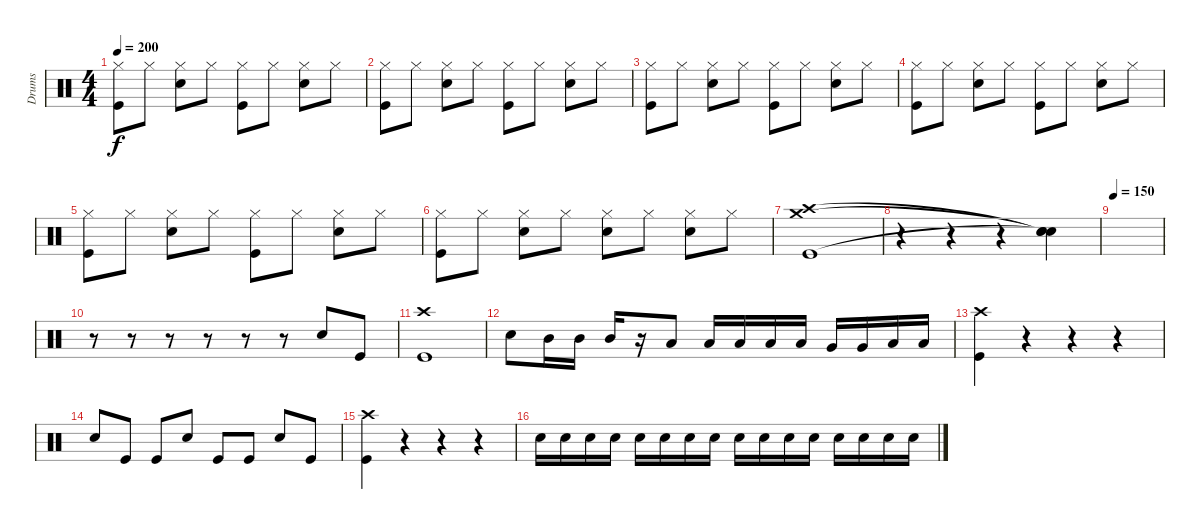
\track ("Drums" "Drums") {instrument percussion}
\staff {score}
\articulation defaults
\ts (4 4)
\tempo 200
\clef neutral
\ks c
("Hi-Hat (closed)" "Kick (hit)").8{dy f} "Hi-Hat (closed)".8 ("Hi-Hat (closed)" "Electric Snare (hit)").8 "Hi-Hat (closed)".8 ("Hi-Hat (closed)" "Kick (hit)").8 "Hi-Hat (closed)".8 ("Hi-Hat (closed)" "Electric Snare (hit)").8 "Hi-Hat (closed)".8 |
("Hi-Hat (closed)" "Kick (hit)").8 "Hi-Hat (closed)".8 ("Hi-Hat (closed)" "Electric Snare (hit)").8 "Hi-Hat (closed)".8 ("Hi-Hat (closed)" "Kick (hit)").8 "Hi-Hat (closed)".8 ("Hi-Hat (closed)" "Electric Snare (hit)").8 "Hi-Hat (closed)".8 |
("Hi-Hat (closed)" "Kick (hit)").8 "Hi-Hat (closed)".8 ("Hi-Hat (closed)" "Electric Snare (hit)").8 "Hi-Hat (closed)".8 ("Hi-Hat (closed)" "Kick (hit)").8 "Hi-Hat (closed)".8 ("Hi-Hat (closed)" "Electric Snare (hit)").8 "Hi-Hat (closed)".8 |
("Hi-Hat (closed)" "Kick (hit)").8 "Hi-Hat (closed)".8 ("Hi-Hat (closed)" "Electric Snare (hit)").8 "Hi-Hat (closed)".8 ("Hi-Hat (closed)" "Kick (hit)").8 "Hi-Hat (closed)".8 ("Hi-Hat (closed)" "Electric Snare (hit)").8 "Hi-Hat (closed)".8 |
("Hi-Hat (closed)" "Kick (hit)").8 "Hi-Hat (closed)".8 ("Hi-Hat (closed)" "Electric Snare (hit)").8 "Hi-Hat (closed)".8 ("Hi-Hat (closed)" "Kick (hit)").8 "Hi-Hat (closed)".8 ("Hi-Hat (closed)" "Electric Snare (hit)").8 "Hi-Hat (closed)".8 |
("Hi-Hat (closed)" "Kick (hit)").8 "Hi-Hat (closed)".8 ("Hi-Hat (closed)" "Electric Snare (hit)").8 "Hi-Hat (closed)".8 ("Hi-Hat (closed)" "Electric Snare (hit)").8 "Hi-Hat (closed)".8 ("Hi-Hat (closed)" "Electric Snare (hit)").8 "Hi-Hat (closed)".8 |
("Crash medium (hit)" "Crash high (hit)" "Kick (hit)").1 |
r.4 r.4 r.4 ("Snare (hit)"{t} "Snare (hit)"{t} "Snare (hit)"{t}).4 |
\tempo 150
|
r.8 r.8 r.8 r.8 r.8 r.8 "Electric Snare (hit)".8 "Kick (hit)".8 |
("Crash high (hit)" "Kick (hit)").1 |
"Electric Snare (hit)".8 "Mid Tom (hit)".16 "Mid Tom (hit)".16 "Mid Tom (hit)".16 r.16 "Low Tom (hit)".8 "Low Tom (hit)".16 "Low Tom (hit)".16 "Low Tom (hit)".16 "Low Tom (hit)".16 "Very Low Tom (hit)".16 "Very Low Tom (hit)".16 "Low Floor Tom (hit)".16 "Low Floor Tom (hit)".16 |
("Crash high (hit)" "Kick (hit)").4 r.4 r.4 r.4 |
"Electric Snare (hit)".8 "Kick (hit)".8 "Kick (hit)".8 "Electric Snare (hit)".8 "Kick (hit)".8 "Kick (hit)".8 "Electric Snare (hit)".8 "Kick (hit)".8 |
("Crash high (hit)" "Kick (hit)").4 r.4 r.4 r.4 |
"Electric Snare (hit)".16 "Electric Snare (hit)".16 "Electric Snare (hit)".16 "Electric Snare (hit)".16 "Electric Snare (hit)".16 "Electric Snare (hit)".16 "Electric Snare (hit)".16 "Electric Snare (hit)".16 "Electric Snare (hit)".16 "Electric Snare (hit)".16 "Electric Snare (hit)".16 "Electric Snare (hit)".16 "Electric Snare (hit)".16 "Electric Snare (hit)".16 "Electric Snare (hit)".16 "Electric Snare (hit)".16
